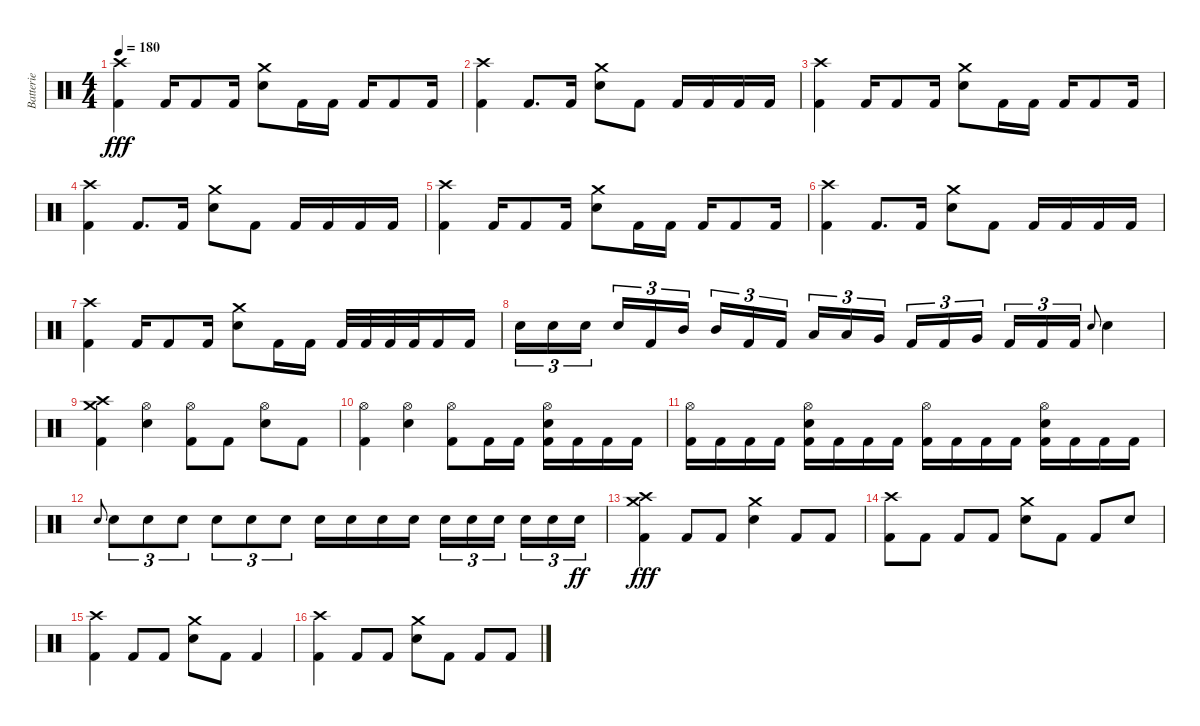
\track ("Batterie" "Batterie") {instrument percussion}
\staff {score}
\articulation defaults
\ts (4 4)
\tempo 180
\clef neutral
\ks c
("Crash high (hit)" "Kick (hit) 2").4{dy fff} "Kick (hit) 2".16 "Kick (hit) 2".8 "Kick (hit) 2".16 ("Crash medium (hit)" "Electric Snare (hit)").8 "Kick (hit) 2".16 "Kick (hit) 2".16 "Kick (hit) 2".16 "Kick (hit) 2".8 "Kick (hit) 2".16 |
("Crash high (hit)" "Kick (hit) 2").4 "Kick (hit) 2".8{d} "Kick (hit) 2".16 ("Crash medium (hit)" "Electric Snare (hit)").8 "Kick (hit) 2".8 "Kick (hit) 2".16 "Kick (hit) 2".16 "Kick (hit) 2".16 "Kick (hit) 2".16 |
("Crash high (hit)" "Kick (hit) 2").4 "Kick (hit) 2".16 "Kick (hit) 2".8 "Kick (hit) 2".16 ("Crash medium (hit)" "Electric Snare (hit)").8 "Kick (hit) 2".16 "Kick (hit) 2".16 "Kick (hit) 2".16 "Kick (hit) 2".8 "Kick (hit) 2".16 |
("Crash high (hit)" "Kick (hit) 2").4 "Kick (hit) 2".8{d} "Kick (hit) 2".16 ("Crash medium (hit)" "Electric Snare (hit)").8 "Kick (hit) 2".8 "Kick (hit) 2".16 "Kick (hit) 2".16 "Kick (hit) 2".16 "Kick (hit) 2".16 |
("Crash high (hit)" "Kick (hit) 2").4 "Kick (hit) 2".16 "Kick (hit) 2".8 "Kick (hit) 2".16 ("Crash medium (hit)" "Electric Snare (hit)").8 "Kick (hit) 2".16 "Kick (hit) 2".16 "Kick (hit) 2".16 "Kick (hit) 2".8 "Kick (hit) 2".16 |
("Crash high (hit)" "Kick (hit) 2").4 "Kick (hit) 2".8{d} "Kick (hit) 2".16 ("Crash medium (hit)" "Electric Snare (hit)").8 "Kick (hit) 2".8 "Kick (hit) 2".16 "Kick (hit) 2".16 "Kick (hit) 2".16 "Kick (hit) 2".16 |
("Crash high (hit)" "Kick (hit) 2").4 "Kick (hit) 2".16 "Kick (hit) 2".8 "Kick (hit) 2".16 ("Crash medium (hit)" "Electric Snare (hit)").8 "Kick (hit) 2".16 "Kick (hit) 2".16 "Kick (hit) 2".32 "Kick (hit) 2".32 "Kick (hit) 2".32 "Kick (hit) 2".32 "Kick (hit) 2".16 "Kick (hit) 2".16 |
"Electric Snare (hit)".16{tu (3 2)} "Electric Snare (hit)".16{tu (3 2)} "Electric Snare (hit)".16{tu (3 2) beam splitsecondary} "Electric Snare (hit)".16{tu (3 2)} "Kick (hit) 2".16{tu (3 2)} "Mid Tom (hit)".16{tu (3 2)} "Mid Tom (hit)".16{tu (3 2)} "Kick (hit) 2".16{tu (3 2)} "Kick (hit) 2".16{tu (3 2) beam splitsecondary} "Low Tom (hit)".16{tu (3 2)} "Low Tom (hit)".16{tu (3 2)} "Very Low Tom (hit)".16{tu (3 2)} "Kick (hit) 2".16{tu (3 2)} "Kick (hit) 2".16{tu (3 2)} "Very Low Tom (hit)".16{tu (3 2) beam splitsecondary} "Kick (hit) 2".16{tu (3 2)} "Kick (hit) 2".16{tu (3 2)} "Kick (hit) 2".16{tu (3 2)} "Electric Snare (hit)".8{gr onbeat} "Electric Snare (hit)".4 |
("Crash high (hit)" "Crash medium (hit)" "Kick (hit) 2").4 ("Hi-Hat (open)" "Electric Snare (hit)").4 ("Hi-Hat (open)" "Kick (hit) 2").8 "Kick (hit) 2".8 ("Hi-Hat (open)" "Electric Snare (hit)").8 "Kick (hit) 2".8 |
("Hi-Hat (open)" "Kick (hit) 2").4 ("Hi-Hat (open)" "Electric Snare (hit)").4 ("Hi-Hat (open)" "Kick (hit) 2").8 "Kick (hit) 2".16 "Kick (hit) 2".16 ("Hi-Hat (open)" "Electric Snare (hit)" "Kick (hit) 2").16 "Kick (hit) 2".16 "Kick (hit) 2".16 "Kick (hit) 2".16 |
("Hi-Hat (open)" "Kick (hit) 2").16 "Kick (hit) 2".16 "Kick (hit) 2".16 "Kick (hit) 2".16 ("Hi-Hat (open)" "Electric Snare (hit)" "Kick (hit) 2").16 "Kick (hit) 2".16 "Kick (hit) 2".16 "Kick (hit) 2".16 ("Hi-Hat (open)" "Kick (hit) 2").16 "Kick (hit) 2".16 "Kick (hit) 2".16 "Kick (hit) 2".16 ("Hi-Hat (open)" "Electric Snare (hit)" "Kick (hit) 2").16 "Kick (hit) 2".16 "Kick (hit) 2".16 "Kick (hit) 2".16 |
"Electric Snare (hit)".8{gr onbeat} "Electric Snare (hit)".8{tu (3 2)} "Electric Snare (hit)".8{tu (3 2)} "Electric Snare (hit)".8{tu (3 2)} "Electric Snare (hit)".8{tu (3 2)} "Electric Snare (hit)".8{tu (3 2)} "Electric Snare (hit)".8{tu (3 2)} "Electric Snare (hit)".16 "Electric Snare (hit)".16 "Electric Snare (hit)".16 "Electric Snare (hit)".16 "Electric Snare (hit)".16{tu (3 2)} "Electric Snare (hit)".16{tu (3 2)} "Electric Snare (hit)".16{tu (3 2) beam splitsecondary} "Electric Snare (hit)".16{tu (3 2)} "Electric Snare (hit)".16{tu (3 2)} "Electric Snare (hit)".16{tu (3 2) dy ff} |
("Crash high (hit)" "Crash medium (hit)" "Kick (hit) 2").4{dy fff} "Kick (hit) 2".8 "Kick (hit) 2".8 ("Crash medium (hit)" "Electric Snare (hit)").4 "Kick (hit) 2".8 "Kick (hit) 2".8 |
("Crash high (hit)" "Kick (hit) 2").8 "Kick (hit) 2".8 "Kick (hit) 2".8 "Kick (hit) 2".8 ("Crash medium (hit)" "Electric Snare (hit)").8 "Kick (hit) 2".8 "Kick (hit) 2".8 "Electric Snare (hit)".8 |
("Crash high (hit)" "Kick (hit) 2").4 "Kick (hit) 2".8 "Kick (hit) 2".8 ("Crash medium (hit)" "Electric Snare (hit)").8 "Kick (hit) 2".8 "Kick (hit) 2".4 |
("Crash high (hit)" "Kick (hit) 2").4 "Kick (hit) 2".8 "Kick (hit) 2".8 ("Crash medium (hit)" "Electric Snare (hit)").8 "Kick (hit) 2".8 "Kick (hit) 2".8 "Kick (hit) 2".8
